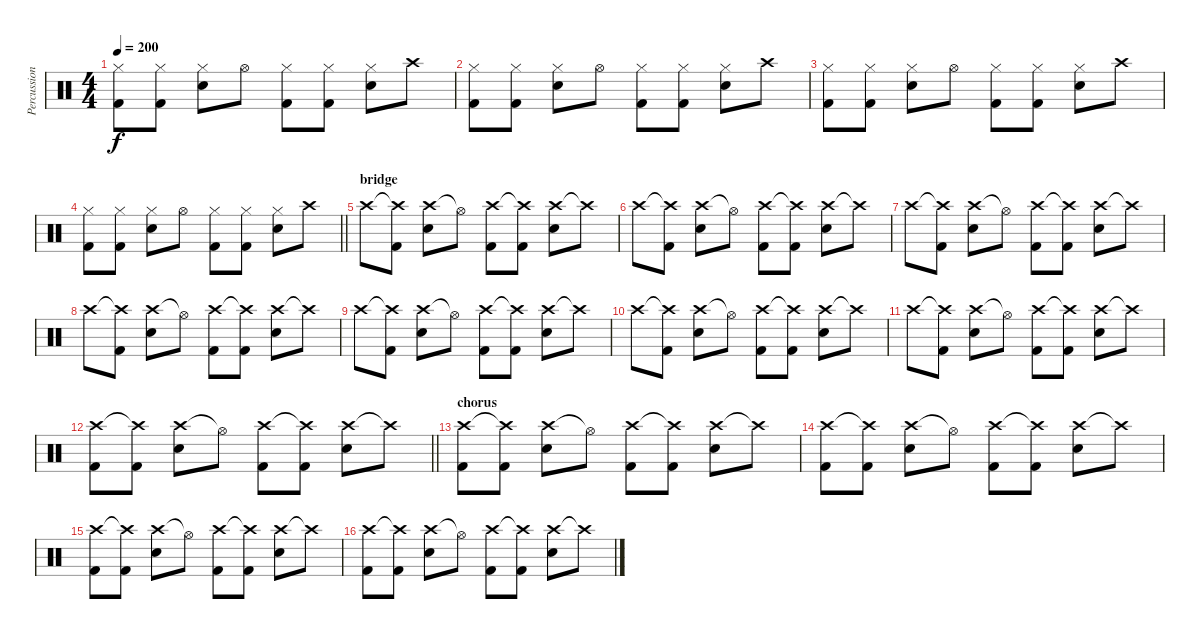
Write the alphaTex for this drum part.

\track ("Percussion" "Percussion") {instrument percussion}
\staff {score}
\articulation defaults
\ts (4 4)
\tempo 200
\clef neutral
\ks c
("Hi-Hat (closed)" "Kick (hit) 2").8{dy f} ("Hi-Hat (closed)" "Kick (hit) 2").8 ("Hi-Hat (closed)" "Snare (hit) 2").8 "Hi-Hat (open)".8 ("Hi-Hat (closed)" "Kick (hit) 2").8 ("Hi-Hat (closed)" "Kick (hit) 2").8 ("Hi-Hat (closed)" "Snare (hit) 2").8 "Crash high (hit)".8 |
("Hi-Hat (closed)" "Kick (hit) 2").8 ("Hi-Hat (closed)" "Kick (hit) 2").8 ("Hi-Hat (closed)" "Snare (hit) 2").8 "Hi-Hat (open)".8 ("Hi-Hat (closed)" "Kick (hit) 2").8 ("Hi-Hat (closed)" "Kick (hit) 2").8 ("Hi-Hat (closed)" "Snare (hit) 2").8 "Crash high (hit)".8 |
("Hi-Hat (closed)" "Kick (hit) 2").8 ("Hi-Hat (closed)" "Kick (hit) 2").8 ("Hi-Hat (closed)" "Snare (hit) 2").8 "Hi-Hat (open)".8 ("Hi-Hat (closed)" "Kick (hit) 2").8 ("Hi-Hat (closed)" "Kick (hit) 2").8 ("Hi-Hat (closed)" "Snare (hit) 2").8 "Crash high (hit)".8 |
\barLineRight lightlight
("Hi-Hat (closed)" "Kick (hit) 2").8 ("Hi-Hat (closed)" "Kick (hit) 2").8 ("Hi-Hat (closed)" "Snare (hit) 2").8 "Hi-Hat (open)".8 ("Hi-Hat (closed)" "Kick (hit) 2").8 ("Hi-Hat (closed)" "Kick (hit) 2").8 ("Hi-Hat (closed)" "Snare (hit) 2").8 "Crash high (hit)".8 |
\section ("" "bridge")
"Crash high (hit)".8 ("Crash high (hit)"{t} "Kick (hit) 2").8 ("Crash high (hit)" "Snare (hit) 2").8 "Hi-Hat (open)"{t}.8 ("Crash high (hit)" "Kick (hit) 2").8 ("Crash high (hit)"{t} "Kick (hit) 2").8 ("Crash high (hit)" "Snare (hit) 2").8 "Crash high (hit)"{t}.8 |
"Crash high (hit)".8 ("Crash high (hit)"{t} "Kick (hit) 2").8 ("Crash high (hit)" "Snare (hit) 2").8 "Hi-Hat (open)"{t}.8 ("Crash high (hit)" "Kick (hit) 2").8 ("Crash high (hit)"{t} "Kick (hit) 2").8 ("Crash high (hit)" "Snare (hit) 2").8 "Crash high (hit)"{t}.8 |
"Crash high (hit)".8 ("Crash high (hit)"{t} "Kick (hit) 2").8 ("Crash high (hit)" "Snare (hit) 2").8 "Hi-Hat (open)"{t}.8 ("Crash high (hit)" "Kick (hit) 2").8 ("Crash high (hit)"{t} "Kick (hit) 2").8 ("Crash high (hit)" "Snare (hit) 2").8 "Crash high (hit)"{t}.8 |
"Crash high (hit)".8 ("Crash high (hit)"{t} "Kick (hit) 2").8 ("Crash high (hit)" "Snare (hit) 2").8 "Hi-Hat (open)"{t}.8 ("Crash high (hit)" "Kick (hit) 2").8 ("Crash high (hit)"{t} "Kick (hit) 2").8 ("Crash high (hit)" "Snare (hit) 2").8 "Crash high (hit)"{t}.8 |
"Crash high (hit)".8 ("Crash high (hit)"{t} "Kick (hit) 2").8 ("Crash high (hit)" "Snare (hit) 2").8 "Hi-Hat (open)"{t}.8 ("Crash high (hit)" "Kick (hit) 2").8 ("Crash high (hit)"{t} "Kick (hit) 2").8 ("Crash high (hit)" "Snare (hit) 2").8 "Crash high (hit)"{t}.8 |
"Crash high (hit)".8 ("Crash high (hit)"{t} "Kick (hit) 2").8 ("Crash high (hit)" "Snare (hit) 2").8 "Hi-Hat (open)"{t}.8 ("Crash high (hit)" "Kick (hit) 2").8 ("Crash high (hit)"{t} "Kick (hit) 2").8 ("Crash high (hit)" "Snare (hit) 2").8 "Crash high (hit)"{t}.8 |
"Crash high (hit)".8 ("Crash high (hit)"{t} "Kick (hit) 2").8 ("Crash high (hit)" "Snare (hit) 2").8 "Hi-Hat (open)"{t}.8 ("Crash high (hit)" "Kick (hit) 2").8 ("Crash high (hit)"{t} "Kick (hit) 2").8 ("Crash high (hit)" "Snare (hit) 2").8 "Crash high (hit)"{t}.8 |
\barLineRight lightlight
("Crash high (hit)" "Kick (hit) 2").8 ("Crash high (hit)"{t} "Kick (hit) 2").8 ("Crash high (hit)" "Snare (hit) 2").8 "Hi-Hat (open)"{t}.8 ("Crash high (hit)" "Kick (hit) 2").8 ("Crash high (hit)"{t} "Kick (hit) 2").8 ("Crash high (hit)" "Snare (hit) 2").8 "Crash high (hit)"{t}.8 |
\section ("" "chorus")
("Crash high (hit)" "Kick (hit) 2").8 ("Crash high (hit)"{t} "Kick (hit) 2").8 ("Crash high (hit)" "Snare (hit) 2").8 "Hi-Hat (open)"{t}.8 ("Crash high (hit)" "Kick (hit) 2").8 ("Crash high (hit)"{t} "Kick (hit) 2").8 ("Crash high (hit)" "Snare (hit) 2").8 "Crash high (hit)"{t}.8 |
("Crash high (hit)" "Kick (hit) 2").8 ("Crash high (hit)"{t} "Kick (hit) 2").8 ("Crash high (hit)" "Snare (hit) 2").8 "Hi-Hat (open)"{t}.8 ("Crash high (hit)" "Kick (hit) 2").8 ("Crash high (hit)"{t} "Kick (hit) 2").8 ("Crash high (hit)" "Snare (hit) 2").8 "Crash high (hit)"{t}.8 |
("Crash high (hit)" "Kick (hit) 2").8 ("Crash high (hit)"{t} "Kick (hit) 2").8 ("Crash high (hit)" "Snare (hit) 2").8 "Hi-Hat (open)"{t}.8 ("Crash high (hit)" "Kick (hit) 2").8 ("Crash high (hit)"{t} "Kick (hit) 2").8 ("Crash high (hit)" "Snare (hit) 2").8 "Crash high (hit)"{t}.8 |
("Crash high (hit)" "Kick (hit) 2").8 ("Crash high (hit)"{t} "Kick (hit) 2").8 ("Crash high (hit)" "Snare (hit) 2").8 "Hi-Hat (open)"{t}.8 ("Crash high (hit)" "Kick (hit) 2").8 ("Crash high (hit)"{t} "Kick (hit) 2").8 ("Crash high (hit)" "Snare (hit) 2").8 "Crash high (hit)"{t}.8
